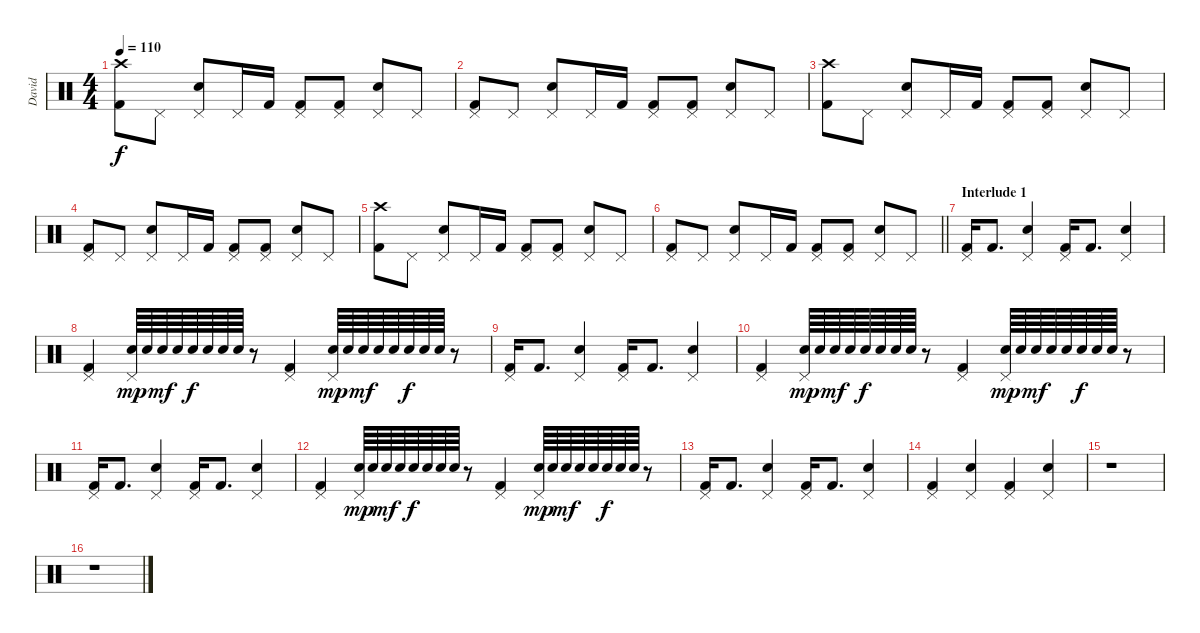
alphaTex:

\track ("David" "David") {instrument percussion}
\staff {score}
\articulation defaults
\ts (4 4)
\tempo 110
\clef neutral
\ks c
("Crash high (hit)" "Kick (hit) 2").8{dy f} "Pedal Hi-Hat (hit)".8 ("Pedal Hi-Hat (hit)" "Electric Snare (hit)").8 "Pedal Hi-Hat (hit)".16 "Kick (hit) 2".16 ("Pedal Hi-Hat (hit)" "Kick (hit) 2").8 ("Pedal Hi-Hat (hit)" "Kick (hit) 2").8 ("Pedal Hi-Hat (hit)" "Electric Snare (hit)").8 "Pedal Hi-Hat (hit)".8 |
("Pedal Hi-Hat (hit)" "Kick (hit) 2").8 "Pedal Hi-Hat (hit)".8 ("Pedal Hi-Hat (hit)" "Electric Snare (hit)").8 "Pedal Hi-Hat (hit)".16 "Kick (hit) 2".16 ("Pedal Hi-Hat (hit)" "Kick (hit) 2").8 ("Pedal Hi-Hat (hit)" "Kick (hit) 2").8 ("Pedal Hi-Hat (hit)" "Electric Snare (hit)").8 "Pedal Hi-Hat (hit)".8 |
("Crash high (hit)" "Kick (hit) 2").8 "Pedal Hi-Hat (hit)".8 ("Pedal Hi-Hat (hit)" "Electric Snare (hit)").8 "Pedal Hi-Hat (hit)".16 "Kick (hit) 2".16 ("Pedal Hi-Hat (hit)" "Kick (hit) 2").8 ("Pedal Hi-Hat (hit)" "Kick (hit) 2").8 ("Pedal Hi-Hat (hit)" "Electric Snare (hit)").8 "Pedal Hi-Hat (hit)".8 |
("Pedal Hi-Hat (hit)" "Kick (hit) 2").8 "Pedal Hi-Hat (hit)".8 ("Pedal Hi-Hat (hit)" "Electric Snare (hit)").8 "Pedal Hi-Hat (hit)".16 "Kick (hit) 2".16 ("Pedal Hi-Hat (hit)" "Kick (hit) 2").8 ("Pedal Hi-Hat (hit)" "Kick (hit) 2").8 ("Pedal Hi-Hat (hit)" "Electric Snare (hit)").8 "Pedal Hi-Hat (hit)".8 |
("Crash high (hit)" "Kick (hit) 2").8 "Pedal Hi-Hat (hit)".8 ("Pedal Hi-Hat (hit)" "Electric Snare (hit)").8 "Pedal Hi-Hat (hit)".16 "Kick (hit) 2".16 ("Pedal Hi-Hat (hit)" "Kick (hit) 2").8 ("Pedal Hi-Hat (hit)" "Kick (hit) 2").8 ("Pedal Hi-Hat (hit)" "Electric Snare (hit)").8 "Pedal Hi-Hat (hit)".8 |
\barLineRight lightlight
("Pedal Hi-Hat (hit)" "Kick (hit) 2").8 "Pedal Hi-Hat (hit)".8 ("Pedal Hi-Hat (hit)" "Electric Snare (hit)").8 "Pedal Hi-Hat (hit)".16 "Kick (hit) 2".16 ("Pedal Hi-Hat (hit)" "Kick (hit) 2").8 ("Pedal Hi-Hat (hit)" "Kick (hit) 2").8 ("Pedal Hi-Hat (hit)" "Electric Snare (hit)").8 "Pedal Hi-Hat (hit)".8 |
\section ("" "Interlude 1")
("Pedal Hi-Hat (hit)" "Kick (hit) 2").16 "Kick (hit) 2".8{d} ("Pedal Hi-Hat (hit)" "Electric Snare (hit)").4 ("Pedal Hi-Hat (hit)" "Kick (hit) 2").16 "Kick (hit) 2".8{d} ("Pedal Hi-Hat (hit)" "Electric Snare (hit)").4 |
("Pedal Hi-Hat (hit)" "Kick (hit) 2").4 ("Pedal Hi-Hat (hit)" "Electric Snare (hit)").64{dy mp} "Electric Snare (hit)".64 "Electric Snare (hit)".64{dy mf} "Electric Snare (hit)".64 "Electric Snare (hit)".64{dy f} "Electric Snare (hit)".64 "Electric Snare (hit)".64 "Electric Snare (hit)".64 r.8 ("Pedal Hi-Hat (hit)" "Kick (hit) 2").4 ("Pedal Hi-Hat (hit)" "Electric Snare (hit)").64{dy mp} "Electric Snare (hit)".64 "Electric Snare (hit)".64{dy mf} "Electric Snare (hit)".64 "Electric Snare (hit)".64 "Electric Snare (hit)".64{dy f} "Electric Snare (hit)".64 "Electric Snare (hit)".64 r.8 |
("Pedal Hi-Hat (hit)" "Kick (hit) 2").16 "Kick (hit) 2".8{d} ("Pedal Hi-Hat (hit)" "Electric Snare (hit)").4 ("Pedal Hi-Hat (hit)" "Kick (hit) 2").16 "Kick (hit) 2".8{d} ("Pedal Hi-Hat (hit)" "Electric Snare (hit)").4 |
("Pedal Hi-Hat (hit)" "Kick (hit) 2").4 ("Pedal Hi-Hat (hit)" "Electric Snare (hit)").64{dy mp} "Electric Snare (hit)".64 "Electric Snare (hit)".64{dy mf} "Electric Snare (hit)".64 "Electric Snare (hit)".64{dy f} "Electric Snare (hit)".64 "Electric Snare (hit)".64 "Electric Snare (hit)".64 r.8 ("Pedal Hi-Hat (hit)" "Kick (hit) 2").4 ("Pedal Hi-Hat (hit)" "Electric Snare (hit)").64{dy mp} "Electric Snare (hit)".64 "Electric Snare (hit)".64{dy mf} "Electric Snare (hit)".64 "Electric Snare (hit)".64 "Electric Snare (hit)".64{dy f} "Electric Snare (hit)".64 "Electric Snare (hit)".64 r.8 |
("Pedal Hi-Hat (hit)" "Kick (hit) 2").16 "Kick (hit) 2".8{d} ("Pedal Hi-Hat (hit)" "Electric Snare (hit)").4 ("Pedal Hi-Hat (hit)" "Kick (hit) 2").16 "Kick (hit) 2".8{d} ("Pedal Hi-Hat (hit)" "Electric Snare (hit)").4 |
("Pedal Hi-Hat (hit)" "Kick (hit) 2").4 ("Pedal Hi-Hat (hit)" "Electric Snare (hit)").64{dy mp} "Electric Snare (hit)".64 "Electric Snare (hit)".64{dy mf} "Electric Snare (hit)".64 "Electric Snare (hit)".64{dy f} "Electric Snare (hit)".64 "Electric Snare (hit)".64 "Electric Snare (hit)".64 r.8 ("Pedal Hi-Hat (hit)" "Kick (hit) 2").4 ("Pedal Hi-Hat (hit)" "Electric Snare (hit)").64{dy mp} "Electric Snare (hit)".64 "Electric Snare (hit)".64{dy mf} "Electric Snare (hit)".64 "Electric Snare (hit)".64 "Electric Snare (hit)".64{dy f} "Electric Snare (hit)".64 "Electric Snare (hit)".64 r.8 |
("Pedal Hi-Hat (hit)" "Kick (hit) 2").16 "Kick (hit) 2".8{d} ("Pedal Hi-Hat (hit)" "Electric Snare (hit)").4 ("Pedal Hi-Hat (hit)" "Kick (hit) 2").16 "Kick (hit) 2".8{d} ("Pedal Hi-Hat (hit)" "Electric Snare (hit)").4 |
("Pedal Hi-Hat (hit)" "Kick (hit) 2").4 ("Pedal Hi-Hat (hit)" "Electric Snare (hit)").4 ("Pedal Hi-Hat (hit)" "Kick (hit) 2").4 ("Pedal Hi-Hat (hit)" "Electric Snare (hit)").4 |
r.1 |
r.1
